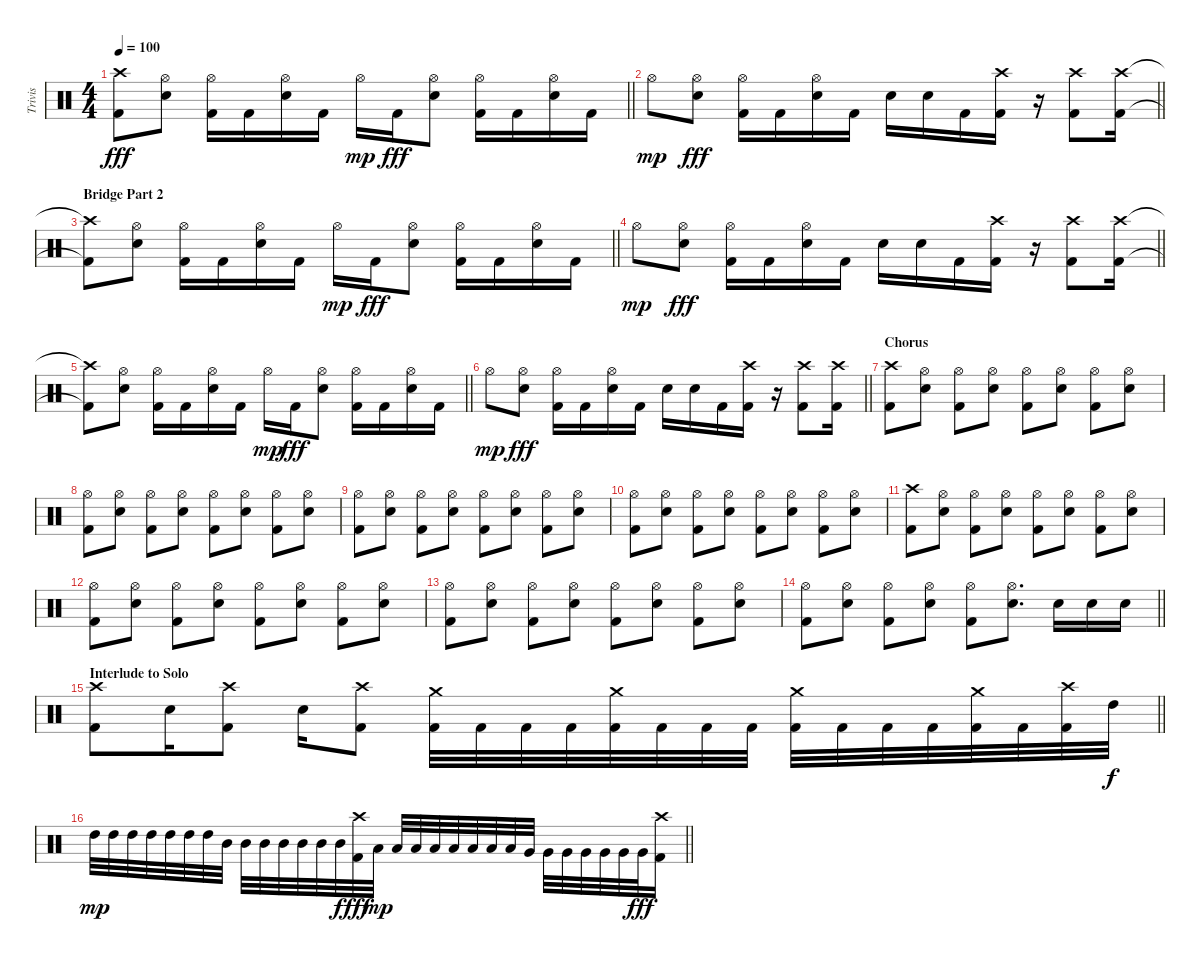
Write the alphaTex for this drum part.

\track ("Trivis" "Trivis") {instrument percussion}
\staff {score}
\articulation defaults
\ts (4 4)
\tempo 100
\clef neutral
\barLineRight lightlight
\ks c
("Crash high (hit)"{t} "Kick (hit) 2"{t}).8{dy fff} ("Hi-Hat (open)" "Snare (hit) 2").8 ("Hi-Hat (open)" "Kick (hit) 2").16 "Kick (hit) 2".16 ("Hi-Hat (open)" "Snare (hit) 2").16 "Kick (hit) 2".16 "Hi-Hat (open)".16{dy mp} "Kick (hit) 2".16{dy fff} ("Hi-Hat (open)" "Snare (hit) 2").8 ("Hi-Hat (open)" "Kick (hit) 2").16 "Kick (hit) 2".16 ("Hi-Hat (open)" "Snare (hit) 2").16 "Kick (hit) 2".16 |
\barLineRight lightlight "Hi-Hat (open)".8{dy mp}
("Hi-Hat (open)" "Snare (hit) 2").8{dy fff} ("Hi-Hat (open)" "Kick (hit) 2").16 "Kick (hit) 2".16 ("Hi-Hat (open)" "Snare (hit) 2").16 "Kick (hit) 2".16 "Snare (hit) 2".16 "Snare (hit) 2".16 "Kick (hit) 2".16 ("Crash high (hit)" "Kick (hit) 2").16 r.16 ("Crash high (hit)" "Kick (hit) 2").8 ("Crash high (hit)" "Kick (hit) 2").16 |
\section ("" "Bridge Part 2")
\barLineRight lightlight
("Crash high (hit)"{t} "Kick (hit) 2"{t}).8 ("Hi-Hat (open)" "Snare (hit) 2").8 ("Hi-Hat (open)" "Kick (hit) 2").16 "Kick (hit) 2".16 ("Hi-Hat (open)" "Snare (hit) 2").16 "Kick (hit) 2".16 "Hi-Hat (open)".16{dy mp} "Kick (hit) 2".16{dy fff} ("Hi-Hat (open)" "Snare (hit) 2").8 ("Hi-Hat (open)" "Kick (hit) 2").16 "Kick (hit) 2".16 ("Hi-Hat (open)" "Snare (hit) 2").16 "Kick (hit) 2".16 |
\barLineRight lightlight "Hi-Hat (open)".8{dy mp}
("Hi-Hat (open)" "Snare (hit) 2").8{dy fff} ("Hi-Hat (open)" "Kick (hit) 2").16 "Kick (hit) 2".16 ("Hi-Hat (open)" "Snare (hit) 2").16 "Kick (hit) 2".16 "Snare (hit) 2".16 "Snare (hit) 2".16 "Kick (hit) 2".16 ("Crash high (hit)" "Kick (hit) 2").16 r.16 ("Crash high (hit)" "Kick (hit) 2").8 ("Crash high (hit)" "Kick (hit) 2").16 |
\barLineRight lightlight
("Crash high (hit)"{t} "Kick (hit) 2"{t}).8 ("Hi-Hat (open)" "Snare (hit) 2").8 ("Hi-Hat (open)" "Kick (hit) 2").16 "Kick (hit) 2".16 ("Hi-Hat (open)" "Snare (hit) 2").16 "Kick (hit) 2".16 "Hi-Hat (open)".16{dy mp} "Kick (hit) 2".16{dy fff} ("Hi-Hat (open)" "Snare (hit) 2").8 ("Hi-Hat (open)" "Kick (hit) 2").16 "Kick (hit) 2".16 ("Hi-Hat (open)" "Snare (hit) 2").16 "Kick (hit) 2".16 |
\barLineRight lightlight "Hi-Hat (open)".8{dy mp}
("Hi-Hat (open)" "Snare (hit) 2").8{dy fff} ("Hi-Hat (open)" "Kick (hit) 2").16 "Kick (hit) 2".16 ("Hi-Hat (open)" "Snare (hit) 2").16 "Kick (hit) 2".16 "Snare (hit) 2".16 "Snare (hit) 2".16 "Kick (hit) 2".16 ("Crash high (hit)" "Kick (hit) 2").16 r.16 ("Crash high (hit)" "Kick (hit) 2").8 ("Crash high (hit)" "Kick (hit) 2").16 |
\section ("" "Chorus")
("Crash high (hit)" "Kick (hit) 2").8 ("Hi-Hat (open)" "Snare (hit) 2").8 ("Hi-Hat (open)" "Kick (hit) 2").8 ("Hi-Hat (open)" "Snare (hit) 2").8 ("Hi-Hat (open)" "Kick (hit) 2").8 ("Hi-Hat (open)" "Snare (hit) 2").8 ("Hi-Hat (open)" "Kick (hit) 2").8 ("Hi-Hat (open)" "Snare (hit) 2").8 |
("Hi-Hat (open)" "Kick (hit) 2").8 ("Hi-Hat (open)" "Snare (hit) 2").8 ("Hi-Hat (open)" "Kick (hit) 2").8 ("Hi-Hat (open)" "Snare (hit) 2").8 ("Hi-Hat (open)" "Kick (hit) 2").8 ("Hi-Hat (open)" "Snare (hit) 2").8 ("Hi-Hat (open)" "Kick (hit) 2").8 ("Hi-Hat (open)" "Snare (hit) 2").8 |
("Hi-Hat (open)" "Kick (hit) 2").8 ("Hi-Hat (open)" "Snare (hit) 2").8 ("Hi-Hat (open)" "Kick (hit) 2").8 ("Hi-Hat (open)" "Snare (hit) 2").8 ("Hi-Hat (open)" "Kick (hit) 2").8 ("Hi-Hat (open)" "Snare (hit) 2").8 ("Hi-Hat (open)" "Kick (hit) 2").8 ("Hi-Hat (open)" "Snare (hit) 2").8 |
("Hi-Hat (open)" "Kick (hit) 2").8 ("Hi-Hat (open)" "Snare (hit) 2").8 ("Hi-Hat (open)" "Kick (hit) 2").8 ("Hi-Hat (open)" "Snare (hit) 2").8 ("Hi-Hat (open)" "Kick (hit) 2").8 ("Hi-Hat (open)" "Snare (hit) 2").8 ("Hi-Hat (open)" "Kick (hit) 2").8 ("Hi-Hat (open)" "Snare (hit) 2").8 |
("Crash high (hit)" "Kick (hit) 2").8 ("Hi-Hat (open)" "Snare (hit) 2").8 ("Hi-Hat (open)" "Kick (hit) 2").8 ("Hi-Hat (open)" "Snare (hit) 2").8 ("Hi-Hat (open)" "Kick (hit) 2").8 ("Hi-Hat (open)" "Snare (hit) 2").8 ("Hi-Hat (open)" "Kick (hit) 2").8 ("Hi-Hat (open)" "Snare (hit) 2").8 |
("Hi-Hat (open)" "Kick (hit) 2").8 ("Hi-Hat (open)" "Snare (hit) 2").8 ("Hi-Hat (open)" "Kick (hit) 2").8 ("Hi-Hat (open)" "Snare (hit) 2").8 ("Hi-Hat (open)" "Kick (hit) 2").8 ("Hi-Hat (open)" "Snare (hit) 2").8 ("Hi-Hat (open)" "Kick (hit) 2").8 ("Hi-Hat (open)" "Snare (hit) 2").8 |
("Hi-Hat (open)" "Kick (hit) 2").8 ("Hi-Hat (open)" "Snare (hit) 2").8 ("Hi-Hat (open)" "Kick (hit) 2").8 ("Hi-Hat (open)" "Snare (hit) 2").8 ("Hi-Hat (open)" "Kick (hit) 2").8 ("Hi-Hat (open)" "Snare (hit) 2").8 ("Hi-Hat (open)" "Kick (hit) 2").8 ("Hi-Hat (open)" "Snare (hit) 2").8 |
\barLineRight lightlight
("Hi-Hat (open)" "Kick (hit) 2").8 ("Hi-Hat (open)" "Snare (hit) 2").8 ("Hi-Hat (open)" "Kick (hit) 2").8 ("Hi-Hat (open)" "Snare (hit) 2").8 ("Hi-Hat (open)" "Kick (hit) 2").8 ("Hi-Hat (open)" "Snare (hit) 2").8{d} "Snare (hit) 2".16 "Snare (hit) 2".16 "Snare (hit) 2".16 |
\section ("" "Interlude to Solo")
\barLineRight lightlight
("Crash high (hit)" "Kick (hit) 2").8 "Snare (hit) 2".16 ("Crash high (hit)" "Kick (hit) 2").8 "Snare (hit) 2".16 ("Crash high (hit)" "Kick (hit) 2").8 ("Crash medium (hit)" "Kick (hit) 2").32 "Kick (hit) 2".32 "Kick (hit) 2".32 "Kick (hit) 2".32 ("Crash medium (hit)" "Kick (hit) 2").32 "Kick (hit) 2".32 "Kick (hit) 2".32 "Kick (hit) 2".32 ("Crash medium (hit)" "Kick (hit) 2").32 "Kick (hit) 2".32 "Kick (hit) 2".32 "Kick (hit) 2".32 ("Crash medium (hit)" "Kick (hit) 2").32 "Kick (hit) 2".32 ("Crash high (hit)" "Kick (hit) 2").32 "High Tom (hit)".32{dy f} |
\barLineRight lightlight "High Tom (hit)".32{dy mp} "High Tom (hit)".32 "High Tom (hit)".32 "High Tom (hit)".32 "High Tom (hit)".32 "High Tom (hit)".32 "High Tom (hit)".32 "Mid Tom (hit)".32 "Mid Tom (hit)".32 "Mid Tom (hit)".32 "Mid Tom (hit)".32 "Mid Tom (hit)".32 "Mid Tom (hit)".32 "Mid Tom (hit)".32{dy f}
("Crash high (hit)" "Kick (hit) 2").32{dy fff} "Low Tom (hit)".32{dy mp} "Low Tom (hit)".32 "Low Tom (hit)".32 "Low Tom (hit)".32 "Low Tom (hit)".32 "Low Tom (hit)".32 "Low Tom (hit)".32 "Low Tom (hit)".32 "Very Low Tom (hit)".32 "Very Low Tom (hit)".32 "Very Low Tom (hit)".32 "Very Low Tom (hit)".32 "Very Low Tom (hit)".32 "Very Low Tom (hit)".32 "Very Low Tom (hit)".32{dy fff} ("Crash high (hit)" "Kick (hit) 2").16
